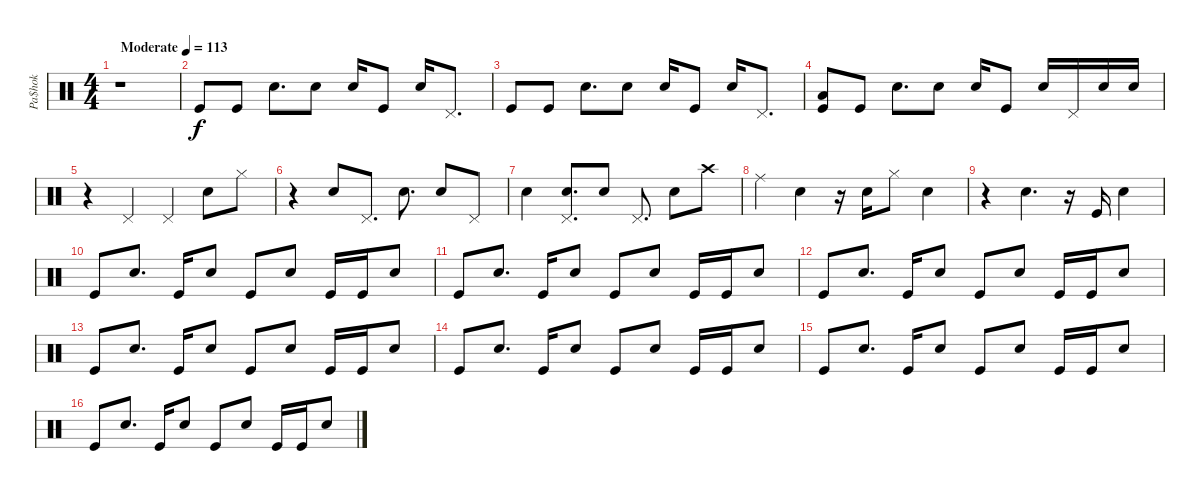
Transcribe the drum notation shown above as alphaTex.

\track ("Pa$hok" "Pa$hok") {instrument percussion}
\staff {score}
\articulation defaults
\ts (4 4)
\tempo (113 "Moderate")
\clef neutral
\ks c
r.1{dy f} |
"Kick (hit)".8 "Kick (hit)".8 "Snare (hit) 2".8{d} "Snare (hit) 2".8 "Snare (hit) 2".16 "Kick (hit)".8 "Snare (hit) 2".16 "Pedal Hi-Hat (hit)".8{d} |
"Kick (hit)".8 "Kick (hit)".8 "Snare (hit) 2".8{d} "Snare (hit) 2".8 "Snare (hit) 2".16 "Kick (hit)".8 "Snare (hit) 2".16 "Pedal Hi-Hat (hit)".8{d} |
("Kick (hit)" "Low Floor Tom (hit)").8 "Kick (hit)".8 "Snare (hit) 2".8{d} "Snare (hit) 2".8 "Snare (hit) 2".16 "Kick (hit)".8 "Snare (hit) 2".16 "Pedal Hi-Hat (hit)".16 "Snare (hit) 2".16 "Snare (hit) 2".16 |
r.4 "Pedal Hi-Hat (hit)".4 "Pedal Hi-Hat (hit)".4 "Snare (hit) 2".8 "Hi-Hat (closed)".8 |
r.4 "Snare (hit) 2".8 "Pedal Hi-Hat (hit)".8{d} "Snare (hit) 2".8{d} "Snare (hit) 2".8 "Pedal Hi-Hat (hit)".8 |
"Snare (hit) 2".4 ("Snare (hit) 2" "Pedal Hi-Hat (hit)").8{d} "Snare (hit) 2".8 "Pedal Hi-Hat (hit)".8{d} "Snare (hit) 2".8 "Crash high (hit)".8 |
"Ride (middle)".4 "Snare (hit) 2".4 r.16 "Snare (hit) 2".16 "Hi-Hat (closed)".8 "Snare (hit) 2".4 |
r.4 "Snare (hit) 2".4{d} r.16 "Kick (hit)".16 "Snare (hit) 2".4 |
"Kick (hit)".8 "Snare (hit) 2".8{d} "Kick (hit)".16 "Snare (hit) 2".8 "Kick (hit)".8 "Snare (hit) 2".8 "Kick (hit)".16 "Kick (hit)".16 "Snare (hit) 2".8 |
"Kick (hit)".8 "Snare (hit) 2".8{d} "Kick (hit)".16 "Snare (hit) 2".8 "Kick (hit)".8 "Snare (hit) 2".8 "Kick (hit)".16 "Kick (hit)".16 "Snare (hit) 2".8 |
"Kick (hit)".8 "Snare (hit) 2".8{d} "Kick (hit)".16 "Snare (hit) 2".8 "Kick (hit)".8 "Snare (hit) 2".8 "Kick (hit)".16 "Kick (hit)".16 "Snare (hit) 2".8 |
"Kick (hit)".8 "Snare (hit) 2".8{d} "Kick (hit)".16 "Snare (hit) 2".8 "Kick (hit)".8 "Snare (hit) 2".8 "Kick (hit)".16 "Kick (hit)".16 "Snare (hit) 2".8 |
"Kick (hit)".8 "Snare (hit) 2".8{d} "Kick (hit)".16 "Snare (hit) 2".8 "Kick (hit)".8 "Snare (hit) 2".8 "Kick (hit)".16 "Kick (hit)".16 "Snare (hit) 2".8 |
"Kick (hit)".8 "Snare (hit) 2".8{d} "Kick (hit)".16 "Snare (hit) 2".8 "Kick (hit)".8 "Snare (hit) 2".8 "Kick (hit)".16 "Kick (hit)".16 "Snare (hit) 2".8 |
"Kick (hit)".8 "Snare (hit) 2".8{d} "Kick (hit)".16 "Snare (hit) 2".8 "Kick (hit)".8 "Snare (hit) 2".8 "Kick (hit)".16 "Kick (hit)".16 "Snare (hit) 2".8
